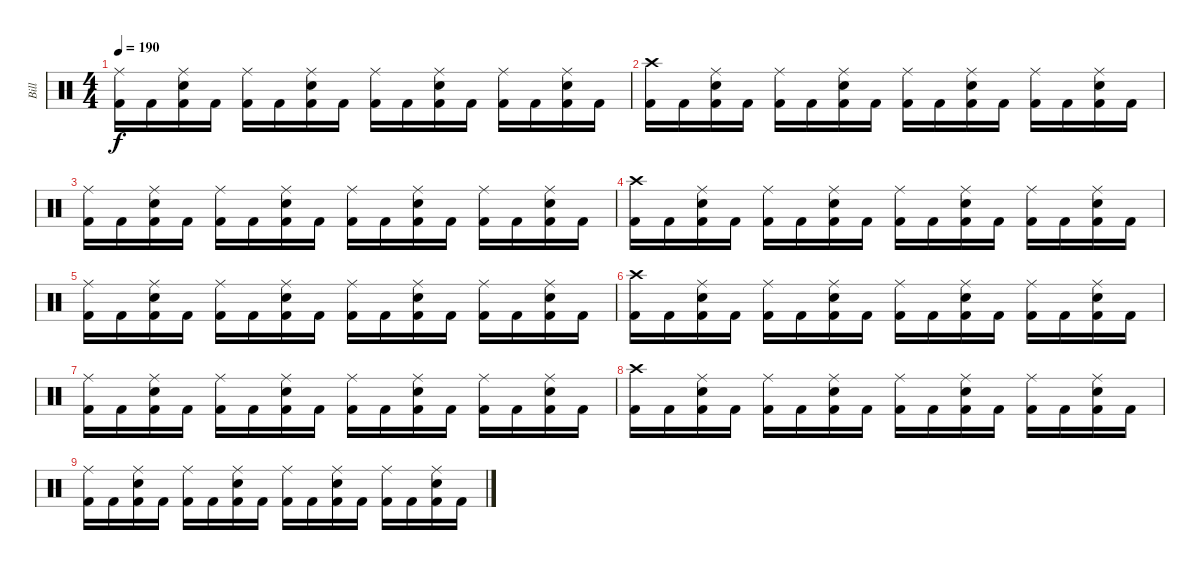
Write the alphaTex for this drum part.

\track ("Bill" "Bill") {instrument percussion}
\staff {score}
\articulation defaults
\ts (4 4)
\tempo 190
\clef neutral
\ks c
("Ride (middle)" "Kick (hit) 2").16{dy f} "Kick (hit) 2".16 ("Ride (middle)" "Snare (hit) 2" "Kick (hit) 2").16 "Kick (hit) 2".16 ("Ride (middle)" "Kick (hit) 2").16 "Kick (hit) 2".16 ("Ride (middle)" "Snare (hit) 2" "Kick (hit) 2").16 "Kick (hit) 2".16 ("Ride (middle)" "Kick (hit) 2").16 "Kick (hit) 2".16 ("Ride (middle)" "Snare (hit) 2" "Kick (hit) 2").16 "Kick (hit) 2".16 ("Ride (middle)" "Kick (hit) 2").16 "Kick (hit) 2".16 ("Ride (middle)" "Snare (hit) 2" "Kick (hit) 2").16 "Kick (hit) 2".16 |
("Crash high (hit)" "Kick (hit) 2").16 "Kick (hit) 2".16 ("Ride (middle)" "Snare (hit) 2" "Kick (hit) 2").16 "Kick (hit) 2".16 ("Ride (middle)" "Kick (hit) 2").16 "Kick (hit) 2".16 ("Ride (middle)" "Snare (hit) 2" "Kick (hit) 2").16 "Kick (hit) 2".16 ("Ride (middle)" "Kick (hit) 2").16 "Kick (hit) 2".16 ("Ride (middle)" "Snare (hit) 2" "Kick (hit) 2").16 "Kick (hit) 2".16 ("Ride (middle)" "Kick (hit) 2").16 "Kick (hit) 2".16 ("Ride (middle)" "Snare (hit) 2" "Kick (hit) 2").16 "Kick (hit) 2".16 |
("Ride (middle)" "Kick (hit) 2").16 "Kick (hit) 2".16 ("Ride (middle)" "Snare (hit) 2" "Kick (hit) 2").16 "Kick (hit) 2".16 ("Ride (middle)" "Kick (hit) 2").16 "Kick (hit) 2".16 ("Ride (middle)" "Snare (hit) 2" "Kick (hit) 2").16 "Kick (hit) 2".16 ("Ride (middle)" "Kick (hit) 2").16 "Kick (hit) 2".16 ("Ride (middle)" "Snare (hit) 2" "Kick (hit) 2").16 "Kick (hit) 2".16 ("Ride (middle)" "Kick (hit) 2").16 "Kick (hit) 2".16 ("Ride (middle)" "Snare (hit) 2" "Kick (hit) 2").16 "Kick (hit) 2".16 |
("Crash high (hit)" "Kick (hit) 2").16 "Kick (hit) 2".16 ("Ride (middle)" "Snare (hit) 2" "Kick (hit) 2").16 "Kick (hit) 2".16 ("Ride (middle)" "Kick (hit) 2").16 "Kick (hit) 2".16 ("Ride (middle)" "Snare (hit) 2" "Kick (hit) 2").16 "Kick (hit) 2".16 ("Ride (middle)" "Kick (hit) 2").16 "Kick (hit) 2".16 ("Ride (middle)" "Snare (hit) 2" "Kick (hit) 2").16 "Kick (hit) 2".16 ("Ride (middle)" "Kick (hit) 2").16 "Kick (hit) 2".16 ("Ride (middle)" "Snare (hit) 2" "Kick (hit) 2").16 "Kick (hit) 2".16 |
("Ride (middle)" "Kick (hit) 2").16 "Kick (hit) 2".16 ("Ride (middle)" "Snare (hit) 2" "Kick (hit) 2").16 "Kick (hit) 2".16 ("Ride (middle)" "Kick (hit) 2").16 "Kick (hit) 2".16 ("Ride (middle)" "Snare (hit) 2" "Kick (hit) 2").16 "Kick (hit) 2".16 ("Ride (middle)" "Kick (hit) 2").16 "Kick (hit) 2".16 ("Ride (middle)" "Snare (hit) 2" "Kick (hit) 2").16 "Kick (hit) 2".16 ("Ride (middle)" "Kick (hit) 2").16 "Kick (hit) 2".16 ("Ride (middle)" "Snare (hit) 2" "Kick (hit) 2").16 "Kick (hit) 2".16 |
("Crash high (hit)" "Kick (hit) 2").16 "Kick (hit) 2".16 ("Ride (middle)" "Snare (hit) 2" "Kick (hit) 2").16 "Kick (hit) 2".16 ("Ride (middle)" "Kick (hit) 2").16 "Kick (hit) 2".16 ("Ride (middle)" "Snare (hit) 2" "Kick (hit) 2").16 "Kick (hit) 2".16 ("Ride (middle)" "Kick (hit) 2").16 "Kick (hit) 2".16 ("Ride (middle)" "Snare (hit) 2" "Kick (hit) 2").16 "Kick (hit) 2".16 ("Ride (middle)" "Kick (hit) 2").16 "Kick (hit) 2".16 ("Ride (middle)" "Snare (hit) 2" "Kick (hit) 2").16 "Kick (hit) 2".16 |
("Ride (middle)" "Kick (hit) 2").16 "Kick (hit) 2".16 ("Ride (middle)" "Snare (hit) 2" "Kick (hit) 2").16 "Kick (hit) 2".16 ("Ride (middle)" "Kick (hit) 2").16 "Kick (hit) 2".16 ("Ride (middle)" "Snare (hit) 2" "Kick (hit) 2").16 "Kick (hit) 2".16 ("Ride (middle)" "Kick (hit) 2").16 "Kick (hit) 2".16 ("Ride (middle)" "Snare (hit) 2" "Kick (hit) 2").16 "Kick (hit) 2".16 ("Ride (middle)" "Kick (hit) 2").16 "Kick (hit) 2".16 ("Ride (middle)" "Snare (hit) 2" "Kick (hit) 2").16 "Kick (hit) 2".16 |
("Crash high (hit)" "Kick (hit) 2").16 "Kick (hit) 2".16 ("Ride (middle)" "Snare (hit) 2" "Kick (hit) 2").16 "Kick (hit) 2".16 ("Ride (middle)" "Kick (hit) 2").16 "Kick (hit) 2".16 ("Ride (middle)" "Snare (hit) 2" "Kick (hit) 2").16 "Kick (hit) 2".16 ("Ride (middle)" "Kick (hit) 2").16 "Kick (hit) 2".16 ("Ride (middle)" "Snare (hit) 2" "Kick (hit) 2").16 "Kick (hit) 2".16 ("Ride (middle)" "Kick (hit) 2").16 "Kick (hit) 2".16 ("Ride (middle)" "Snare (hit) 2" "Kick (hit) 2").16 "Kick (hit) 2".16 |
("Ride (middle)" "Kick (hit) 2").16 "Kick (hit) 2".16 ("Ride (middle)" "Snare (hit) 2" "Kick (hit) 2").16 "Kick (hit) 2".16 ("Ride (middle)" "Kick (hit) 2").16 "Kick (hit) 2".16 ("Ride (middle)" "Snare (hit) 2" "Kick (hit) 2").16 "Kick (hit) 2".16 ("Ride (middle)" "Kick (hit) 2").16 "Kick (hit) 2".16 ("Ride (middle)" "Snare (hit) 2" "Kick (hit) 2").16 "Kick (hit) 2".16 ("Ride (middle)" "Kick (hit) 2").16 "Kick (hit) 2".16 ("Ride (middle)" "Snare (hit) 2" "Kick (hit) 2").16 "Kick (hit) 2".16
